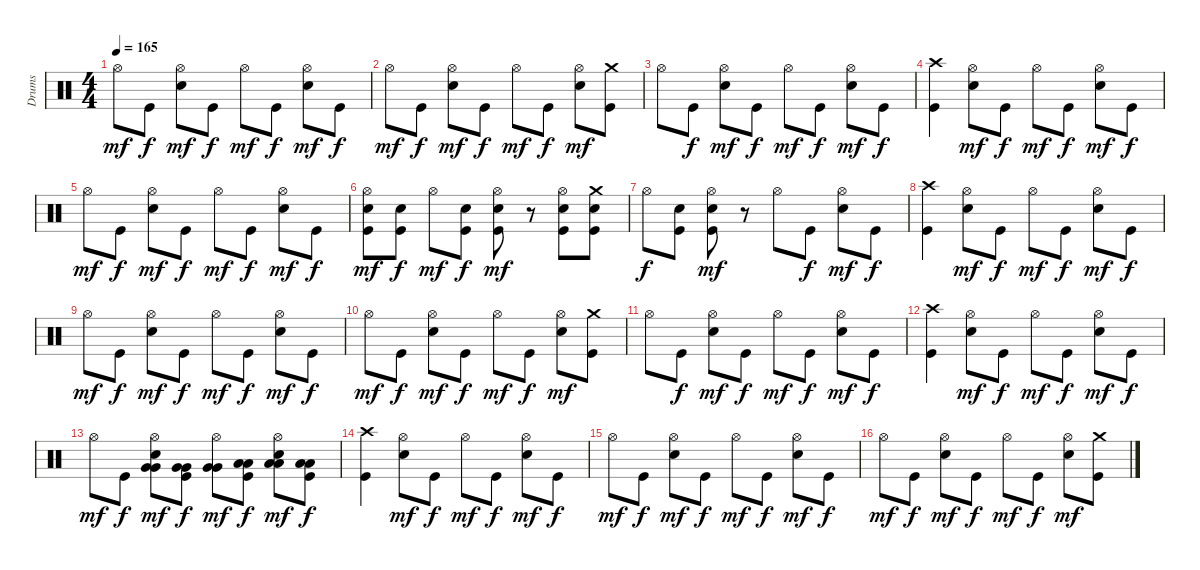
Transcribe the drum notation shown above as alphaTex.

\track ("Drums" "Drums") {instrument percussion}
\staff {score}
\articulation defaults
\ts (4 4)
\tempo 165
\clef neutral
\ks c "Hi-Hat (open)".8{dy mf} "Kick (hit)".8{dy f}
("Electric Snare (hit)" "Hi-Hat (open)").8{dy mf} "Kick (hit)".8{dy f} "Hi-Hat (open)".8{dy mf} "Kick (hit)".8{dy f} ("Electric Snare (hit)" "Hi-Hat (open)").8{dy mf} "Kick (hit)".8{dy f} |
"Hi-Hat (open)".8{dy mf} "Kick (hit)".8{dy f} ("Electric Snare (hit)" "Hi-Hat (open)").8{dy mf} "Kick (hit)".8{dy f} "Hi-Hat (open)".8{dy mf} "Kick (hit)".8{dy f} ("Electric Snare (hit)" "Hi-Hat (open)").8{dy mf} ("Kick (hit)" "Crash medium (hit)").8 |
"Hi-Hat (open)".8 "Kick (hit)".8{dy f} ("Electric Snare (hit)" "Hi-Hat (open)").8{dy mf} "Kick (hit)".8{dy f} "Hi-Hat (open)".8{dy mf} "Kick (hit)".8{dy f} ("Electric Snare (hit)" "Hi-Hat (open)").8{dy mf} "Kick (hit)".8{dy f} |
("Kick (hit)" "Crash high (hit)").4 ("Electric Snare (hit)" "Hi-Hat (open)").8{dy mf} "Kick (hit)".8{dy f} "Hi-Hat (open)".8{dy mf} "Kick (hit)".8{dy f} ("Electric Snare (hit)" "Hi-Hat (open)").8{dy mf} "Kick (hit)".8{dy f} |
"Hi-Hat (open)".8{dy mf} "Kick (hit)".8{dy f} ("Electric Snare (hit)" "Hi-Hat (open)").8{dy mf} "Kick (hit)".8{dy f} "Hi-Hat (open)".8{dy mf} "Kick (hit)".8{dy f} ("Electric Snare (hit)" "Hi-Hat (open)").8{dy mf} "Kick (hit)".8{dy f} |
("Electric Snare (hit)" "Kick (hit)" "Hi-Hat (open)").8{dy mf} ("Electric Snare (hit)" "Kick (hit)").8{dy f} "Hi-Hat (open)".8{dy mf} ("Electric Snare (hit)" "Kick (hit)").8{dy f} ("Electric Snare (hit)" "Kick (hit)" "Hi-Hat (open)").8{dy mf} r.8 ("Electric Snare (hit)" "Kick (hit)" "Hi-Hat (open)").8 ("Electric Snare (hit)" "Kick (hit)" "Crash medium (hit)").8 |
"Hi-Hat (open)".8{dy f} ("Electric Snare (hit)" "Kick (hit)").8 ("Electric Snare (hit)" "Kick (hit)" "Hi-Hat (open)").8{dy mf} r.8 "Hi-Hat (open)".8 "Kick (hit)".8{dy f} ("Electric Snare (hit)" "Hi-Hat (open)").8{dy mf} "Kick (hit)".8{dy f} |
("Kick (hit)" "Crash high (hit)").4 ("Electric Snare (hit)" "Hi-Hat (open)").8{dy mf} "Kick (hit)".8{dy f} "Hi-Hat (open)".8{dy mf} "Kick (hit)".8{dy f} ("Electric Snare (hit)" "Hi-Hat (open)").8{dy mf} "Kick (hit)".8{dy f} |
"Hi-Hat (open)".8{dy mf} "Kick (hit)".8{dy f} ("Electric Snare (hit)" "Hi-Hat (open)").8{dy mf} "Kick (hit)".8{dy f} "Hi-Hat (open)".8{dy mf} "Kick (hit)".8{dy f} ("Electric Snare (hit)" "Hi-Hat (open)").8{dy mf} "Kick (hit)".8{dy f} |
"Hi-Hat (open)".8{dy mf} "Kick (hit)".8{dy f} ("Electric Snare (hit)" "Hi-Hat (open)").8{dy mf} "Kick (hit)".8{dy f} "Hi-Hat (open)".8{dy mf} "Kick (hit)".8{dy f} ("Electric Snare (hit)" "Hi-Hat (open)").8{dy mf} ("Kick (hit)" "Crash medium (hit)").8 |
"Hi-Hat (open)".8 "Kick (hit)".8{dy f} ("Electric Snare (hit)" "Hi-Hat (open)").8{dy mf} "Kick (hit)".8{dy f} "Hi-Hat (open)".8{dy mf} "Kick (hit)".8{dy f} ("Electric Snare (hit)" "Hi-Hat (open)").8{dy mf} "Kick (hit)".8{dy f} |
("Kick (hit)" "Crash high (hit)").4 ("Electric Snare (hit)" "Hi-Hat (open)").8{dy mf} "Kick (hit)".8{dy f} "Hi-Hat (open)".8{dy mf} "Kick (hit)".8{dy f} ("Electric Snare (hit)" "Hi-Hat (open)").8{dy mf} "Kick (hit)".8{dy f} |
"Hi-Hat (open)".8{dy mf} "Kick (hit)".8{dy f} ("Electric Snare (hit)" "Very Low Tom (hit)" "Very Low Tom (hit)" "Hi-Hat (open)").8{dy mf} ("Kick (hit)" "Very Low Tom (hit)" "Very Low Tom (hit)").8{dy f} ("Very Low Tom (hit)" "Very Low Tom (hit)" "Hi-Hat (open)").8{dy mf} ("Kick (hit)" "Low Floor Tom (hit)" "Low Floor Tom (hit)").8{dy f} ("Electric Snare (hit)" "Low Floor Tom (hit)" "Low Floor Tom (hit)" "Hi-Hat (open)").8{dy mf} ("Kick (hit)" "Low Floor Tom (hit)" "Low Floor Tom (hit)").8{dy f} |
("Kick (hit)" "Crash high (hit)").4 ("Electric Snare (hit)" "Hi-Hat (open)").8{dy mf} "Kick (hit)".8{dy f} "Hi-Hat (open)".8{dy mf} "Kick (hit)".8{dy f} ("Electric Snare (hit)" "Hi-Hat (open)").8{dy mf} "Kick (hit)".8{dy f} |
"Hi-Hat (open)".8{dy mf} "Kick (hit)".8{dy f} ("Electric Snare (hit)" "Hi-Hat (open)").8{dy mf} "Kick (hit)".8{dy f} "Hi-Hat (open)".8{dy mf} "Kick (hit)".8{dy f} ("Electric Snare (hit)" "Hi-Hat (open)").8{dy mf} "Kick (hit)".8{dy f} |
"Hi-Hat (open)".8{dy mf} "Kick (hit)".8{dy f} ("Electric Snare (hit)" "Hi-Hat (open)").8{dy mf} "Kick (hit)".8{dy f} "Hi-Hat (open)".8{dy mf} "Kick (hit)".8{dy f} ("Electric Snare (hit)" "Hi-Hat (open)").8{dy mf} ("Kick (hit)" "Crash medium (hit)").8
